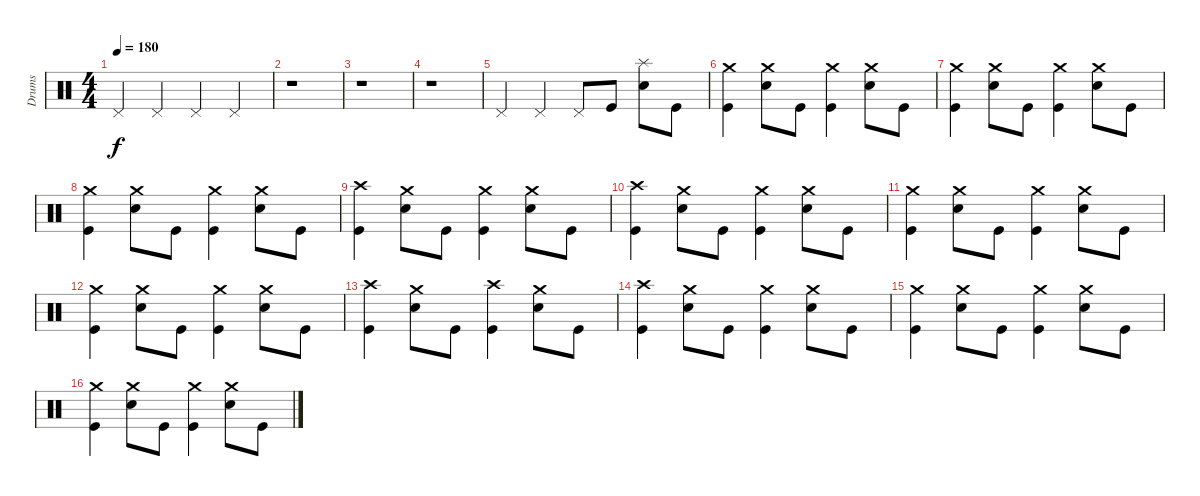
\track ("Drums" "Drums") {instrument percussion}
\staff {score}
\articulation defaults
\ts (4 4)
\tempo 180
\clef neutral
\ks c "Pedal Hi-Hat (hit)".4{dy f} "Pedal Hi-Hat (hit)".4 "Pedal Hi-Hat (hit)".4 "Pedal Hi-Hat (hit)".4
|
r.1 |
r.1 |
r.1 |
"Pedal Hi-Hat (hit)".4 "Pedal Hi-Hat (hit)".4 "Pedal Hi-Hat (hit)".8 "Kick (hit)".8 ("Splash (hit)" "Electric Snare (hit)").8 "Kick (hit)".8 |
("Crash medium (hit)" "Kick (hit)").4 ("Crash medium (hit)" "Electric Snare (hit)").8 "Kick (hit)".8 ("Crash medium (hit)" "Kick (hit)").4 ("Crash medium (hit)" "Electric Snare (hit)").8 "Kick (hit)".8 |
("Crash medium (hit)" "Kick (hit)").4 ("Crash medium (hit)" "Electric Snare (hit)").8 "Kick (hit)".8 ("Crash medium (hit)" "Kick (hit)").4 ("Crash medium (hit)" "Electric Snare (hit)").8 "Kick (hit)".8 |
("Crash medium (hit)" "Kick (hit)").4 ("Crash medium (hit)" "Electric Snare (hit)").8 "Kick (hit)".8 ("Crash medium (hit)" "Kick (hit)").4 ("Crash medium (hit)" "Electric Snare (hit)").8 "Kick (hit)".8 |
("Crash high (hit)" "Kick (hit)").4 ("Crash medium (hit)" "Electric Snare (hit)").8 "Kick (hit)".8 ("Crash medium (hit)" "Kick (hit)").4 ("Crash medium (hit)" "Electric Snare (hit)").8 "Kick (hit)".8 |
("Crash high (hit)" "Kick (hit)").4 ("Crash medium (hit)" "Electric Snare (hit)").8 "Kick (hit)".8 ("Crash medium (hit)" "Kick (hit)").4 ("Crash medium (hit)" "Electric Snare (hit)").8 "Kick (hit)".8 |
("Crash medium (hit)" "Kick (hit)").4 ("Crash medium (hit)" "Electric Snare (hit)").8 "Kick (hit)".8 ("Crash medium (hit)" "Kick (hit)").4 ("Crash medium (hit)" "Electric Snare (hit)").8 "Kick (hit)".8 |
("Crash medium (hit)" "Kick (hit)").4 ("Crash medium (hit)" "Electric Snare (hit)").8 "Kick (hit)".8 ("Crash medium (hit)" "Kick (hit)").4 ("Crash medium (hit)" "Electric Snare (hit)").8 "Kick (hit)".8 |
("Crash high (hit)" "Kick (hit)").4 ("Crash medium (hit)" "Electric Snare (hit)").8 "Kick (hit)".8 ("Crash high (hit)" "Kick (hit)").4 ("Crash medium (hit)" "Electric Snare (hit)").8 "Kick (hit)".8 |
("Crash high (hit)" "Kick (hit)").4 ("Crash medium (hit)" "Electric Snare (hit)").8 "Kick (hit)".8 ("Crash medium (hit)" "Kick (hit)").4 ("Crash medium (hit)" "Electric Snare (hit)").8 "Kick (hit)".8 |
("Crash medium (hit)" "Kick (hit)").4 ("Crash medium (hit)" "Electric Snare (hit)").8 "Kick (hit)".8 ("Crash medium (hit)" "Kick (hit)").4 ("Crash medium (hit)" "Electric Snare (hit)").8 "Kick (hit)".8 |
("Crash medium (hit)" "Kick (hit)").4 ("Crash medium (hit)" "Electric Snare (hit)").8 "Kick (hit)".8 ("Crash medium (hit)" "Kick (hit)").4 ("Crash medium (hit)" "Electric Snare (hit)").8 "Kick (hit)".8
